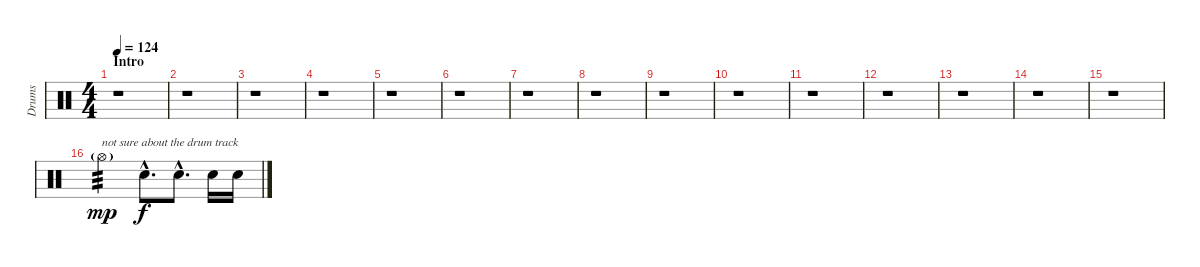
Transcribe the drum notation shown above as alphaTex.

\track ("Drums" "Drums") {instrument percussion}
\staff {score}
\articulation defaults
\ts (4 4)
\section ("" "Intro")
\tempo 124
\clef neutral
\ks c
r.1{dy mp} |
r.1 |
r.1 |
r.1 |
r.1 |
r.1 |
r.1 |
r.1 |
r.1 |
r.1 |
r.1 |
r.1 |
r.1 |
r.1 |
r.1 |
"Hi-Hat (open)"{g}.2{txt "not sure about the drum track" tp 3} "Electric Snare (hit)"{hac}.8{d dy f} "Electric Snare (hit)"{hac}.8{d} "Electric Snare (hit)".16 "Electric Snare (hit)".16
